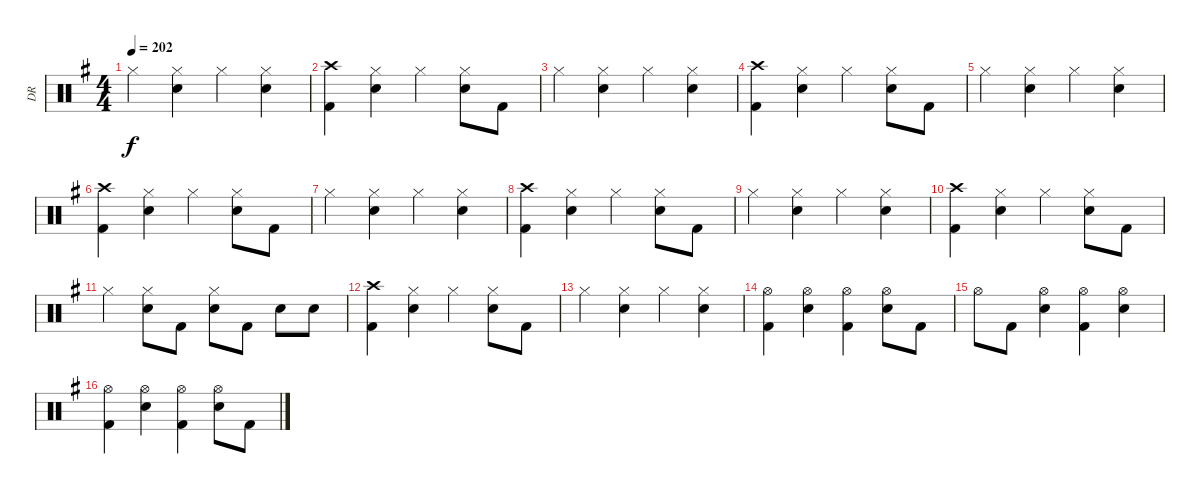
\track ("DR" "DR") {instrument percussion}
\staff {score}
\articulation defaults
\ts (4 4)
\tempo 202
\clef neutral
\ks g "Hi-Hat (closed)".4{dy f}
("Hi-Hat (closed)" "Electric Snare (hit)").4 "Hi-Hat (closed)".4 ("Hi-Hat (closed)" "Electric Snare (hit)").4 |
("Crash high (hit)" "Kick (hit) 2").4 ("Hi-Hat (closed)" "Electric Snare (hit)").4 "Hi-Hat (closed)".4 ("Hi-Hat (closed)" "Electric Snare (hit)").8 "Kick (hit) 2".8 |
"Hi-Hat (closed)".4 ("Hi-Hat (closed)" "Electric Snare (hit)").4 "Hi-Hat (closed)".4 ("Hi-Hat (closed)" "Electric Snare (hit)").4 |
("Crash high (hit)" "Kick (hit) 2").4 ("Hi-Hat (closed)" "Electric Snare (hit)").4 "Hi-Hat (closed)".4 ("Hi-Hat (closed)" "Electric Snare (hit)").8 "Kick (hit) 2".8 |
"Hi-Hat (closed)".4 ("Hi-Hat (closed)" "Electric Snare (hit)").4 "Hi-Hat (closed)".4 ("Hi-Hat (closed)" "Electric Snare (hit)").4 |
("Crash high (hit)" "Kick (hit) 2").4 ("Hi-Hat (closed)" "Electric Snare (hit)").4 "Hi-Hat (closed)".4 ("Hi-Hat (closed)" "Electric Snare (hit)").8 "Kick (hit) 2".8 |
"Hi-Hat (closed)".4 ("Hi-Hat (closed)" "Electric Snare (hit)").4 "Hi-Hat (closed)".4 ("Hi-Hat (closed)" "Electric Snare (hit)").4 |
("Crash high (hit)" "Kick (hit) 2").4 ("Hi-Hat (closed)" "Electric Snare (hit)").4 "Hi-Hat (closed)".4 ("Hi-Hat (closed)" "Electric Snare (hit)").8 "Kick (hit) 2".8 |
"Hi-Hat (closed)".4 ("Hi-Hat (closed)" "Electric Snare (hit)").4 "Hi-Hat (closed)".4 ("Hi-Hat (closed)" "Electric Snare (hit)").4 |
("Crash high (hit)" "Kick (hit) 2").4 ("Hi-Hat (closed)" "Electric Snare (hit)").4 "Hi-Hat (closed)".4 ("Hi-Hat (closed)" "Electric Snare (hit)").8 "Kick (hit) 2".8 |
"Hi-Hat (closed)".4 ("Hi-Hat (closed)" "Electric Snare (hit)").8 "Kick (hit) 2".8 ("Hi-Hat (closed)" "Electric Snare (hit)").8 "Kick (hit) 2".8 "Electric Snare (hit)".8 "Electric Snare (hit)".8 |
("Crash high (hit)" "Kick (hit) 2").4 ("Hi-Hat (closed)" "Electric Snare (hit)").4 "Hi-Hat (closed)".4 ("Hi-Hat (closed)" "Electric Snare (hit)").8 "Kick (hit) 2".8 |
"Hi-Hat (closed)".4 ("Hi-Hat (closed)" "Electric Snare (hit)").4 "Hi-Hat (closed)".4 ("Hi-Hat (closed)" "Electric Snare (hit)").4 |
("Hi-Hat (open)" "Kick (hit) 2").4 ("Hi-Hat (open)" "Electric Snare (hit)").4 ("Hi-Hat (open)" "Kick (hit) 2").4 ("Hi-Hat (open)" "Electric Snare (hit)").8 "Kick (hit) 2".8 |
"Hi-Hat (open)".8 "Kick (hit) 2".8 ("Hi-Hat (open)" "Electric Snare (hit)").4 ("Hi-Hat (open)" "Kick (hit) 2").4 ("Hi-Hat (open)" "Electric Snare (hit)").4 |
("Hi-Hat (open)" "Kick (hit) 2").4 ("Hi-Hat (open)" "Electric Snare (hit)").4 ("Hi-Hat (open)" "Kick (hit) 2").4 ("Hi-Hat (open)" "Electric Snare (hit)").8 "Kick (hit) 2".8
